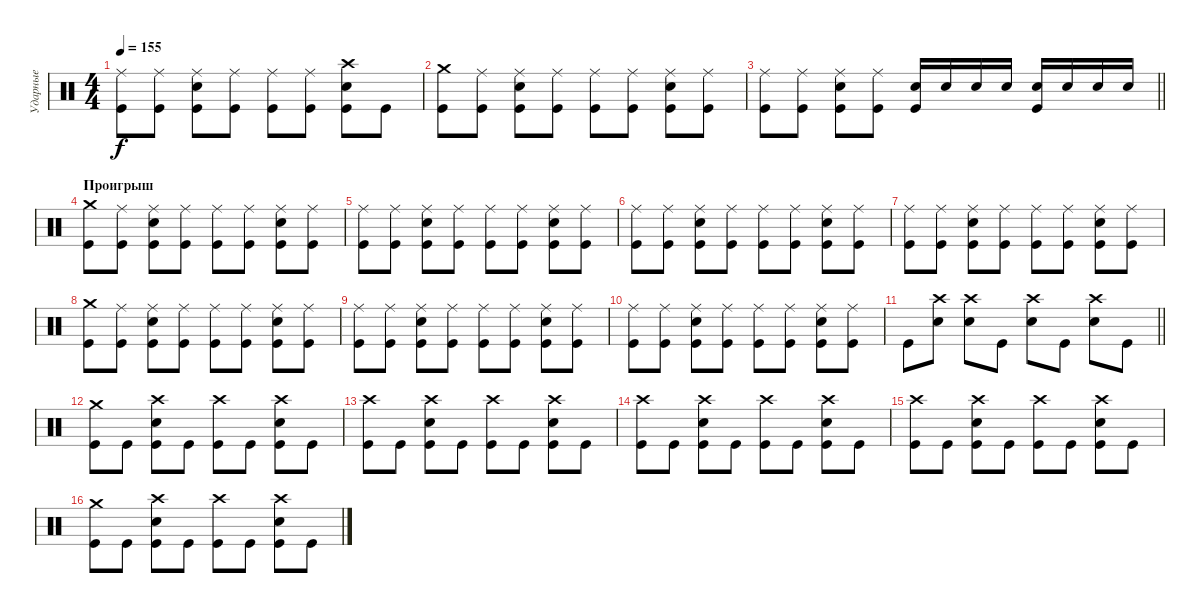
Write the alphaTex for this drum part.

\track ("Ударные" "Ударные") {instrument percussion}
\staff {score}
\articulation defaults
\ts (4 4)
\tempo 155
\clef neutral
\ks c
("Ride (middle)" "Kick (hit)").8{dy f} ("Ride (middle)" "Kick (hit)").8 ("Ride (middle)" "Electric Snare (hit)" "Kick (hit)").8 ("Ride (middle)" "Kick (hit)").8 ("Ride (middle)" "Kick (hit)").8 ("Ride (middle)" "Kick (hit)").8 ("Crash high (hit)" "Electric Snare (hit)" "Kick (hit)").8 "Kick (hit)".8 |
("Crash medium (hit)" "Kick (hit)").8 ("Ride (middle)" "Kick (hit)").8 ("Ride (middle)" "Electric Snare (hit)" "Kick (hit)").8 ("Ride (middle)" "Kick (hit)").8 ("Ride (middle)" "Kick (hit)").8 ("Ride (middle)" "Kick (hit)").8 ("Ride (middle)" "Electric Snare (hit)" "Kick (hit)").8 ("Ride (middle)" "Kick (hit)").8 |
\barLineRight lightlight
("Ride (middle)" "Kick (hit)").8 ("Ride (middle)" "Kick (hit)").8 ("Ride (middle)" "Electric Snare (hit)" "Kick (hit)").8 ("Ride (middle)" "Kick (hit)").8 ("Electric Snare (hit)" "Kick (hit)").16 "Electric Snare (hit)".16 "Electric Snare (hit)".16 "Electric Snare (hit)".16 ("Electric Snare (hit)" "Kick (hit)").16 "Electric Snare (hit)".16 "Electric Snare (hit)".16 "Electric Snare (hit)".16 |
\section ("" "Проигрыш")
("Crash medium (hit)" "Kick (hit)").8 ("Ride (middle)" "Kick (hit)").8 ("Ride (middle)" "Electric Snare (hit)" "Kick (hit)").8 ("Ride (middle)" "Kick (hit)").8 ("Ride (middle)" "Kick (hit)").8 ("Ride (middle)" "Kick (hit)").8 ("Ride (middle)" "Electric Snare (hit)" "Kick (hit)").8 ("Ride (middle)" "Kick (hit)").8 |
("Ride (middle)" "Kick (hit)").8 ("Ride (middle)" "Kick (hit)").8 ("Ride (middle)" "Electric Snare (hit)" "Kick (hit)").8 ("Ride (middle)" "Kick (hit)").8 ("Ride (middle)" "Kick (hit)").8 ("Ride (middle)" "Kick (hit)").8 ("Ride (middle)" "Electric Snare (hit)" "Kick (hit)").8 ("Ride (middle)" "Kick (hit)").8 |
("Ride (middle)" "Kick (hit)").8 ("Ride (middle)" "Kick (hit)").8 ("Ride (middle)" "Electric Snare (hit)" "Kick (hit)").8 ("Ride (middle)" "Kick (hit)").8 ("Ride (middle)" "Kick (hit)").8 ("Ride (middle)" "Kick (hit)").8 ("Ride (middle)" "Electric Snare (hit)" "Kick (hit)").8 ("Ride (middle)" "Kick (hit)").8 |
("Ride (middle)" "Kick (hit)").8 ("Ride (middle)" "Kick (hit)").8 ("Ride (middle)" "Electric Snare (hit)" "Kick (hit)").8 ("Ride (middle)" "Kick (hit)").8 ("Ride (middle)" "Kick (hit)").8 ("Ride (middle)" "Kick (hit)").8 ("Ride (middle)" "Electric Snare (hit)" "Kick (hit)").8 ("Ride (middle)" "Kick (hit)").8 |
("Crash medium (hit)" "Kick (hit)").8 ("Ride (middle)" "Kick (hit)").8 ("Ride (middle)" "Electric Snare (hit)" "Kick (hit)").8 ("Ride (middle)" "Kick (hit)").8 ("Ride (middle)" "Kick (hit)").8 ("Ride (middle)" "Kick (hit)").8 ("Ride (middle)" "Electric Snare (hit)" "Kick (hit)").8 ("Ride (middle)" "Kick (hit)").8 |
("Ride (middle)" "Kick (hit)").8 ("Ride (middle)" "Kick (hit)").8 ("Ride (middle)" "Electric Snare (hit)" "Kick (hit)").8 ("Ride (middle)" "Kick (hit)").8 ("Ride (middle)" "Kick (hit)").8 ("Ride (middle)" "Kick (hit)").8 ("Ride (middle)" "Electric Snare (hit)" "Kick (hit)").8 ("Ride (middle)" "Kick (hit)").8 |
("Ride (middle)" "Kick (hit)").8 ("Ride (middle)" "Kick (hit)").8 ("Ride (middle)" "Electric Snare (hit)" "Kick (hit)").8 ("Ride (middle)" "Kick (hit)").8 ("Ride (middle)" "Kick (hit)").8 ("Ride (middle)" "Kick (hit)").8 ("Ride (middle)" "Electric Snare (hit)" "Kick (hit)").8 ("Ride (middle)" "Kick (hit)").8 |
\barLineRight lightlight "Kick (hit)".8
("Crash high (hit)" "Electric Snare (hit)").8 ("Crash high (hit)" "Electric Snare (hit)").8 "Kick (hit)".8 ("Crash high (hit)" "Electric Snare (hit)").8 "Kick (hit)".8 ("Crash high (hit)" "Electric Snare (hit)").8 "Kick (hit)".8 |
\section ("" " ")
("Crash medium (hit)" "Kick (hit)").8 "Kick (hit)".8 ("Crash high (hit)" "Electric Snare (hit)" "Kick (hit)").8 "Kick (hit)".8 ("Crash high (hit)" "Kick (hit)").8 "Kick (hit)".8 ("Crash high (hit)" "Electric Snare (hit)" "Kick (hit)").8 "Kick (hit)".8 |
("Crash high (hit)" "Kick (hit)").8 "Kick (hit)".8 ("Crash high (hit)" "Electric Snare (hit)" "Kick (hit)").8 "Kick (hit)".8 ("Crash high (hit)" "Kick (hit)").8 "Kick (hit)".8 ("Crash high (hit)" "Electric Snare (hit)" "Kick (hit)").8 "Kick (hit)".8 |
("Crash high (hit)" "Kick (hit)").8 "Kick (hit)".8 ("Crash high (hit)" "Electric Snare (hit)" "Kick (hit)").8 "Kick (hit)".8 ("Crash high (hit)" "Kick (hit)").8 "Kick (hit)".8 ("Crash high (hit)" "Electric Snare (hit)" "Kick (hit)").8 "Kick (hit)".8 |
("Crash high (hit)" "Kick (hit)").8 "Kick (hit)".8 ("Crash high (hit)" "Electric Snare (hit)" "Kick (hit)").8 "Kick (hit)".8 ("Crash high (hit)" "Kick (hit)").8 "Kick (hit)".8 ("Crash high (hit)" "Electric Snare (hit)" "Kick (hit)").8 "Kick (hit)".8 |
("Crash medium (hit)" "Kick (hit)").8 "Kick (hit)".8 ("Crash high (hit)" "Electric Snare (hit)" "Kick (hit)").8 "Kick (hit)".8 ("Crash high (hit)" "Kick (hit)").8 "Kick (hit)".8 ("Crash high (hit)" "Electric Snare (hit)" "Kick (hit)").8 "Kick (hit)".8
